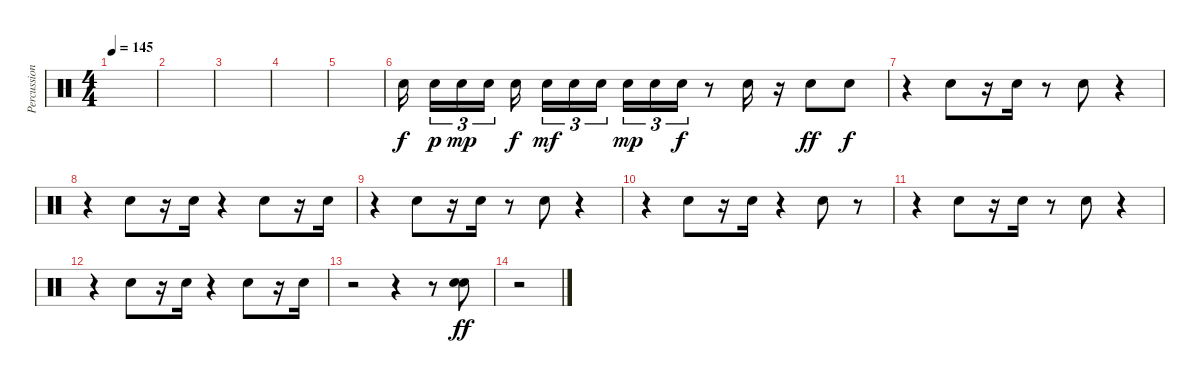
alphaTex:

\track ("Percussion" "Percussion") {instrument percussion}
\staff {score}
\articulation defaults
\ts (4 4)
\tempo 145
\clef neutral
\ks c
|
|
|
|
|
"Snare (hit) 2".16 "Snare (hit) 2".16{tu (3 2) dy p} "Snare (hit) 2".16{tu (3 2) dy mp} "Snare (hit) 2".16{tu (3 2)} "Snare (hit) 2".16{dy f} "Snare (hit) 2".16{tu (3 2) dy mf} "Snare (hit) 2".16{tu (3 2)} "Snare (hit) 2".16{tu (3 2)} "Snare (hit) 2".16{tu (3 2) dy mp} "Snare (hit) 2".16{tu (3 2)} "Snare (hit) 2".16{tu (3 2) dy f} r.8 "Snare (hit) 2".16 r.16 "Snare (hit) 2".8{dy ff} "Snare (hit) 2".8{dy f} |
r.4 "Snare (hit) 2".8 r.16 "Snare (hit) 2".16 r.8 "Snare (hit) 2".8 r.4 |
r.4 "Snare (hit) 2".8 r.16 "Snare (hit) 2".16 r.4 "Snare (hit) 2".8 r.16 "Snare (hit) 2".16 |
r.4 "Snare (hit) 2".8 r.16 "Snare (hit) 2".16 r.8 "Snare (hit) 2".8 r.4 |
r.4 "Snare (hit) 2".8 r.16 "Snare (hit) 2".16 r.4 "Snare (hit) 2".8 r.8 |
r.4 "Snare (hit) 2".8 r.16 "Snare (hit) 2".16 r.8 "Snare (hit) 2".8 r.4 |
r.4 "Snare (hit) 2".8 r.16 "Snare (hit) 2".16 r.4 "Snare (hit) 2".8 r.16 "Snare (hit) 2".16 |
r.2 r.4 r.8 ("Snare (hit) 2" "Electric Snare (hit)").8{dy ff} |
r.2
